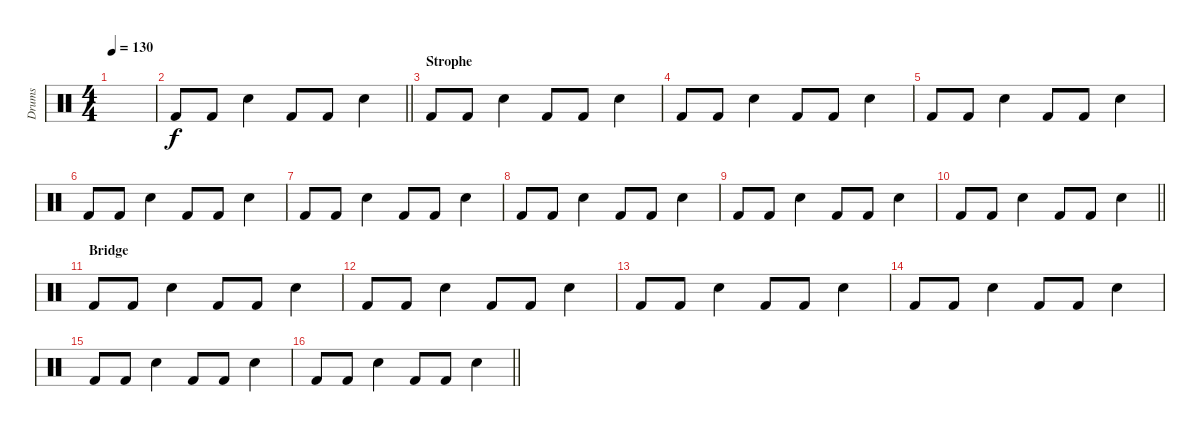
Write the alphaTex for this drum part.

\track ("Drums" "Drums") {instrument percussion}
\staff {score}
\articulation defaults
\ts (4 4)
\tempo 130
\clef neutral
\ks c
|
\barLineRight lightlight "Kick (hit) 2".8 "Kick (hit) 2".8 "Snare (hit) 2".4 "Kick (hit) 2".8 "Kick (hit) 2".8 "Snare (hit) 2".4
|
\section ("" "Strophe")
"Kick (hit) 2".8 "Kick (hit) 2".8 "Snare (hit) 2".4 "Kick (hit) 2".8 "Kick (hit) 2".8 "Snare (hit) 2".4 |
"Kick (hit) 2".8 "Kick (hit) 2".8 "Snare (hit) 2".4 "Kick (hit) 2".8 "Kick (hit) 2".8 "Snare (hit) 2".4 |
"Kick (hit) 2".8 "Kick (hit) 2".8 "Snare (hit) 2".4 "Kick (hit) 2".8 "Kick (hit) 2".8 "Snare (hit) 2".4 |
"Kick (hit) 2".8 "Kick (hit) 2".8 "Snare (hit) 2".4 "Kick (hit) 2".8 "Kick (hit) 2".8 "Snare (hit) 2".4 |
"Kick (hit) 2".8 "Kick (hit) 2".8 "Snare (hit) 2".4 "Kick (hit) 2".8 "Kick (hit) 2".8 "Snare (hit) 2".4 |
"Kick (hit) 2".8 "Kick (hit) 2".8 "Snare (hit) 2".4 "Kick (hit) 2".8 "Kick (hit) 2".8 "Snare (hit) 2".4 |
"Kick (hit) 2".8 "Kick (hit) 2".8 "Snare (hit) 2".4 "Kick (hit) 2".8 "Kick (hit) 2".8 "Snare (hit) 2".4 |
\barLineRight lightlight "Kick (hit) 2".8 "Kick (hit) 2".8 "Snare (hit) 2".4 "Kick (hit) 2".8 "Kick (hit) 2".8 "Snare (hit) 2".4
|
\section ("" "Bridge")
"Kick (hit) 2".8 "Kick (hit) 2".8 "Snare (hit) 2".4 "Kick (hit) 2".8 "Kick (hit) 2".8 "Snare (hit) 2".4 |
"Kick (hit) 2".8 "Kick (hit) 2".8 "Snare (hit) 2".4 "Kick (hit) 2".8 "Kick (hit) 2".8 "Snare (hit) 2".4 |
"Kick (hit) 2".8 "Kick (hit) 2".8 "Snare (hit) 2".4 "Kick (hit) 2".8 "Kick (hit) 2".8 "Snare (hit) 2".4 |
"Kick (hit) 2".8 "Kick (hit) 2".8 "Snare (hit) 2".4 "Kick (hit) 2".8 "Kick (hit) 2".8 "Snare (hit) 2".4 |
"Kick (hit) 2".8 "Kick (hit) 2".8 "Snare (hit) 2".4 "Kick (hit) 2".8 "Kick (hit) 2".8 "Snare (hit) 2".4 |
\barLineRight lightlight "Kick (hit) 2".8 "Kick (hit) 2".8 "Snare (hit) 2".4 "Kick (hit) 2".8 "Kick (hit) 2".8 "Snare (hit) 2".4
